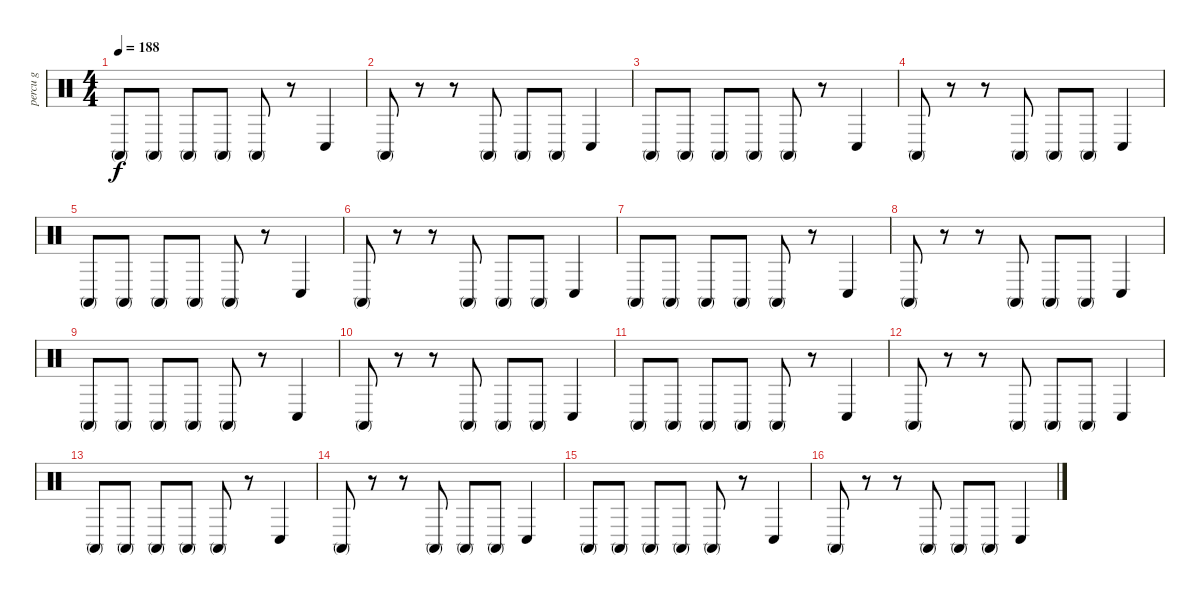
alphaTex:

\track ("percu g" "percu g") {instrument percussion}
\staff {score}
\articulation defaults
\ts (4 4)
\tempo 188
\clef neutral
\ks c "Conga high (mute)".8{dy f} "Conga high (mute)".8 "Conga high (mute)".8 "Conga high (mute)".8 "Conga high (mute)".8
r.8 "Conga low (hit)".4 |
"Conga high (mute)".8 r.8 r.8 "Conga high (mute)".8 "Conga high (mute)".8 "Conga high (mute)".8 "Conga low (hit)".4 |
"Conga high (mute)".8 "Conga high (mute)".8 "Conga high (mute)".8 "Conga high (mute)".8 "Conga high (mute)".8 r.8 "Conga low (hit)".4 |
"Conga high (mute)".8 r.8 r.8 "Conga high (mute)".8 "Conga high (mute)".8 "Conga high (mute)".8 "Conga low (hit)".4 |
"Conga high (mute)".8 "Conga high (mute)".8 "Conga high (mute)".8 "Conga high (mute)".8 "Conga high (mute)".8 r.8 "Conga low (hit)".4 |
"Conga high (mute)".8 r.8 r.8 "Conga high (mute)".8 "Conga high (mute)".8 "Conga high (mute)".8 "Conga low (hit)".4 |
"Conga high (mute)".8 "Conga high (mute)".8 "Conga high (mute)".8 "Conga high (mute)".8 "Conga high (mute)".8 r.8 "Conga low (hit)".4 |
"Conga high (mute)".8 r.8 r.8 "Conga high (mute)".8 "Conga high (mute)".8 "Conga high (mute)".8 "Conga low (hit)".4 |
"Conga high (mute)".8 "Conga high (mute)".8 "Conga high (mute)".8 "Conga high (mute)".8 "Conga high (mute)".8 r.8 "Conga low (hit)".4 |
"Conga high (mute)".8 r.8 r.8 "Conga high (mute)".8 "Conga high (mute)".8 "Conga high (mute)".8 "Conga low (hit)".4 |
"Conga high (mute)".8 "Conga high (mute)".8 "Conga high (mute)".8 "Conga high (mute)".8 "Conga high (mute)".8 r.8 "Conga low (hit)".4 |
"Conga high (mute)".8 r.8 r.8 "Conga high (mute)".8 "Conga high (mute)".8 "Conga high (mute)".8 "Conga low (hit)".4 |
"Conga high (mute)".8 "Conga high (mute)".8 "Conga high (mute)".8 "Conga high (mute)".8 "Conga high (mute)".8 r.8 "Conga low (hit)".4 |
"Conga high (mute)".8 r.8 r.8 "Conga high (mute)".8 "Conga high (mute)".8 "Conga high (mute)".8 "Conga low (hit)".4 |
"Conga high (mute)".8 "Conga high (mute)".8 "Conga high (mute)".8 "Conga high (mute)".8 "Conga high (mute)".8 r.8 "Conga low (hit)".4 |
"Conga high (mute)".8 r.8 r.8 "Conga high (mute)".8 "Conga high (mute)".8 "Conga high (mute)".8 "Conga low (hit)".4
